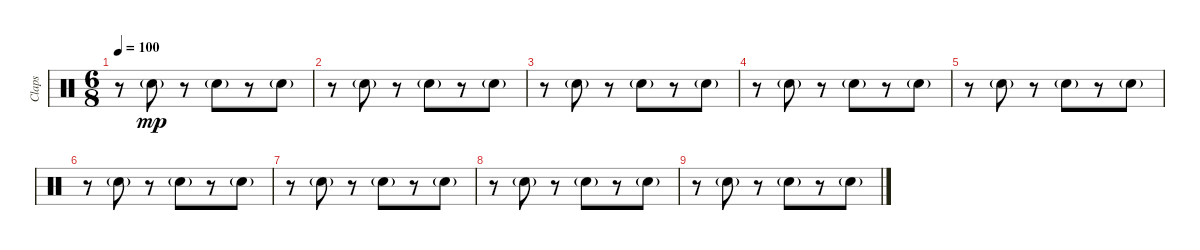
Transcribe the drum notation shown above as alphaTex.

\track ("Claps" "Claps") {instrument percussion}
\staff {score}
\articulation defaults
\ts (6 8)
\tempo 100
\clef neutral
\ks c
r.8{dy mp} "Hand Clap (hit)"{g}.8 r.8 "Hand Clap (hit)"{g}.8 r.8 "Hand Clap (hit)"{g}.8 |
r.8 "Hand Clap (hit)"{g}.8 r.8 "Hand Clap (hit)"{g}.8 r.8 "Hand Clap (hit)"{g}.8 |
r.8 "Hand Clap (hit)"{g}.8 r.8 "Hand Clap (hit)"{g}.8 r.8 "Hand Clap (hit)"{g}.8 |
r.8 "Hand Clap (hit)"{g}.8 r.8 "Hand Clap (hit)"{g}.8 r.8 "Hand Clap (hit)"{g}.8 |
r.8 "Hand Clap (hit)"{g}.8 r.8 "Hand Clap (hit)"{g}.8 r.8 "Hand Clap (hit)"{g}.8 |
r.8 "Hand Clap (hit)"{g}.8 r.8 "Hand Clap (hit)"{g}.8 r.8 "Hand Clap (hit)"{g}.8 |
r.8 "Hand Clap (hit)"{g}.8 r.8 "Hand Clap (hit)"{g}.8 r.8 "Hand Clap (hit)"{g}.8 |
r.8 "Hand Clap (hit)"{g}.8 r.8 "Hand Clap (hit)"{g}.8 r.8 "Hand Clap (hit)"{g}.8 |
r.8 "Hand Clap (hit)"{g}.8 r.8 "Hand Clap (hit)"{g}.8 r.8 "Hand Clap (hit)"{g}.8
